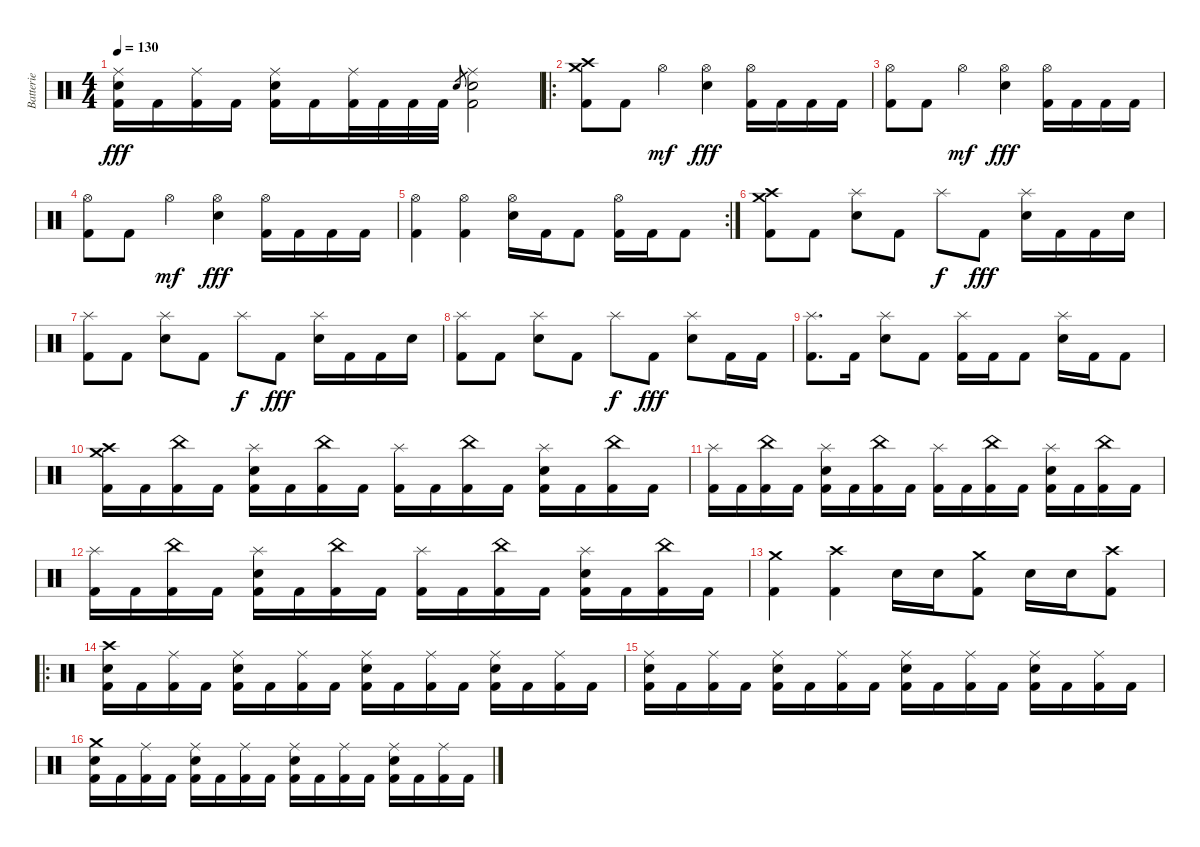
\track ("Batterie" "Batterie") {instrument percussion}
\staff {score}
\articulation defaults
\ts (4 4)
\tempo 130
\clef neutral
\ks c
("Ride (middle)" "Electric Snare (hit)" "Kick (hit) 2").16{dy fff} "Kick (hit) 2".16 ("Ride (middle)" "Kick (hit) 2").16 "Kick (hit) 2".16 ("Ride (middle)" "Electric Snare (hit)" "Kick (hit) 2").16 "Kick (hit) 2".16 ("Ride (middle)" "Kick (hit) 2").32 "Kick (hit) 2".32 "Kick (hit) 2".32 "Kick (hit) 2".32 "Electric Snare (hit)".8{gr} ("Ride (middle)" "Electric Snare (hit)" "Kick (hit) 2").2 |
\ro
("Crash high (hit)" "Crash medium (hit)" "Kick (hit) 2").8 "Kick (hit) 2".8 "Hi-Hat (open)".4{dy mf} ("Hi-Hat (open)" "Electric Snare (hit)").4{dy fff} ("Hi-Hat (open)" "Kick (hit) 2").16 "Kick (hit) 2".16 "Kick (hit) 2".16 "Kick (hit) 2".16 |
("Hi-Hat (open)" "Kick (hit) 2").8 "Kick (hit) 2".8 "Hi-Hat (open)".4{dy mf} ("Hi-Hat (open)" "Electric Snare (hit)").4{dy fff} ("Hi-Hat (open)" "Kick (hit) 2").16 "Kick (hit) 2".16 "Kick (hit) 2".16 "Kick (hit) 2".16 |
("Hi-Hat (open)" "Kick (hit) 2").8 "Kick (hit) 2".8 "Hi-Hat (open)".4{dy mf} ("Hi-Hat (open)" "Electric Snare (hit)").4{dy fff} ("Hi-Hat (open)" "Kick (hit) 2").16 "Kick (hit) 2".16 "Kick (hit) 2".16 "Kick (hit) 2".16 |
\rc 2
("Hi-Hat (open)" "Kick (hit) 2").4 ("Hi-Hat (open)" "Kick (hit) 2").4 ("Hi-Hat (open)" "Electric Snare (hit)").16 "Kick (hit) 2".16 "Kick (hit) 2".8 ("Hi-Hat (open)" "Kick (hit) 2").16 "Kick (hit) 2".16 "Kick (hit) 2".8 |
("Crash high (hit)" "Crash medium (hit)" "Kick (hit) 2").8 "Kick (hit) 2".8 ("Splash (hit)" "Electric Snare (hit)").8 "Kick (hit) 2".8 "Splash (hit)".8{dy f} "Kick (hit) 2".8{dy fff} ("Splash (hit)" "Electric Snare (hit)").16 "Kick (hit) 2".16 "Kick (hit) 2".16 "Electric Snare (hit)".16 |
("Splash (hit)" "Kick (hit) 2").8 "Kick (hit) 2".8 ("Splash (hit)" "Electric Snare (hit)").8 "Kick (hit) 2".8 "Splash (hit)".8{dy f} "Kick (hit) 2".8{dy fff} ("Splash (hit)" "Electric Snare (hit)").16 "Kick (hit) 2".16 "Kick (hit) 2".16 "Electric Snare (hit)".16 |
("Splash (hit)" "Kick (hit) 2").8 "Kick (hit) 2".8 ("Splash (hit)" "Electric Snare (hit)").8 "Kick (hit) 2".8 "Splash (hit)".8{dy f} "Kick (hit) 2".8{dy fff} ("Splash (hit)" "Electric Snare (hit)").8 "Kick (hit) 2".16 "Kick (hit) 2".16 |
("Splash (hit)" "Kick (hit) 2").8{d} "Kick (hit) 2".16 ("Splash (hit)" "Electric Snare (hit)").8 "Kick (hit) 2".8 ("Splash (hit)" "Kick (hit) 2").16 "Kick (hit) 2".16 "Kick (hit) 2".8 ("Splash (hit)" "Electric Snare (hit)").16 "Kick (hit) 2".16 "Kick (hit) 2".8 |
("Crash high (hit)" "Crash medium (hit)" "Kick (hit) 2").16 "Kick (hit) 2".16 ("China (hit)" "Kick (hit) 2").16 "Kick (hit) 2".16 ("Splash (hit)" "Electric Snare (hit)" "Kick (hit) 2").16 "Kick (hit) 2".16 ("China (hit)" "Kick (hit) 2").16 "Kick (hit) 2".16 ("Splash (hit)" "Kick (hit) 2").16 "Kick (hit) 2".16 ("China (hit)" "Kick (hit) 2").16 "Kick (hit) 2".16 ("Splash (hit)" "Electric Snare (hit)" "Kick (hit) 2").16 "Kick (hit) 2".16 ("China (hit)" "Kick (hit) 2").16 "Kick (hit) 2".16 |
("Splash (hit)" "Kick (hit) 2").16 "Kick (hit) 2".16 ("China (hit)" "Kick (hit) 2").16 "Kick (hit) 2".16 ("Splash (hit)" "Electric Snare (hit)" "Kick (hit) 2").16 "Kick (hit) 2".16 ("China (hit)" "Kick (hit) 2").16 "Kick (hit) 2".16 ("Splash (hit)" "Kick (hit) 2").16 "Kick (hit) 2".16 ("China (hit)" "Kick (hit) 2").16 "Kick (hit) 2".16 ("Splash (hit)" "Electric Snare (hit)" "Kick (hit) 2").16 "Kick (hit) 2".16 ("China (hit)" "Kick (hit) 2").16 "Kick (hit) 2".16 |
("Splash (hit)" "Kick (hit) 2").16 "Kick (hit) 2".16 ("China (hit)" "Kick (hit) 2").16 "Kick (hit) 2".16 ("Splash (hit)" "Electric Snare (hit)" "Kick (hit) 2").16 "Kick (hit) 2".16 ("China (hit)" "Kick (hit) 2").16 "Kick (hit) 2".16 ("Splash (hit)" "Kick (hit) 2").16 "Kick (hit) 2".16 ("China (hit)" "Kick (hit) 2").16 "Kick (hit) 2".16 ("Splash (hit)" "Electric Snare (hit)" "Kick (hit) 2").16 "Kick (hit) 2".16 ("China (hit)" "Kick (hit) 2").16 "Kick (hit) 2".16 |
("Crash medium (hit)" "Kick (hit) 2").4 ("Crash high (hit)" "Kick (hit) 2").4 "Electric Snare (hit)".16 "Electric Snare (hit)".16 ("Crash medium (hit)" "Kick (hit) 2").8 "Electric Snare (hit)".16 "Electric Snare (hit)".16 ("Crash high (hit)" "Kick (hit) 2").8 |
\ro
("Crash high (hit)" "Electric Snare (hit)" "Kick (hit) 2").16 "Kick (hit) 2".16 ("Ride (middle)" "Kick (hit) 2").16 "Kick (hit) 2".16 ("Ride (middle)" "Electric Snare (hit)" "Kick (hit) 2").16 "Kick (hit) 2".16 ("Ride (middle)" "Kick (hit) 2").16 "Kick (hit) 2".16 ("Ride (middle)" "Electric Snare (hit)" "Kick (hit) 2").16 "Kick (hit) 2".16 ("Ride (middle)" "Kick (hit) 2").16 "Kick (hit) 2".16 ("Ride (middle)" "Electric Snare (hit)" "Kick (hit) 2").16 "Kick (hit) 2".16 ("Ride (middle)" "Kick (hit) 2").16 "Kick (hit) 2".16 |
("Ride (middle)" "Electric Snare (hit)" "Kick (hit) 2").16 "Kick (hit) 2".16 ("Ride (middle)" "Kick (hit) 2").16 "Kick (hit) 2".16 ("Ride (middle)" "Electric Snare (hit)" "Kick (hit) 2").16 "Kick (hit) 2".16 ("Ride (middle)" "Kick (hit) 2").16 "Kick (hit) 2".16 ("Ride (middle)" "Electric Snare (hit)" "Kick (hit) 2").16 "Kick (hit) 2".16 ("Ride (middle)" "Kick (hit) 2").16 "Kick (hit) 2".16 ("Ride (middle)" "Electric Snare (hit)" "Kick (hit) 2").16 "Kick (hit) 2".16 ("Ride (middle)" "Kick (hit) 2").16 "Kick (hit) 2".16 |
("Crash medium (hit)" "Electric Snare (hit)" "Kick (hit) 2").16 "Kick (hit) 2".16 ("Ride (middle)" "Kick (hit) 2").16 "Kick (hit) 2".16 ("Ride (middle)" "Electric Snare (hit)" "Kick (hit) 2").16 "Kick (hit) 2".16 ("Ride (middle)" "Kick (hit) 2").16 "Kick (hit) 2".16 ("Ride (middle)" "Electric Snare (hit)" "Kick (hit) 2").16 "Kick (hit) 2".16 ("Ride (middle)" "Kick (hit) 2").16 "Kick (hit) 2".16 ("Ride (middle)" "Electric Snare (hit)" "Kick (hit) 2").16 "Kick (hit) 2".16 ("Ride (middle)" "Kick (hit) 2").16 "Kick (hit) 2".16
